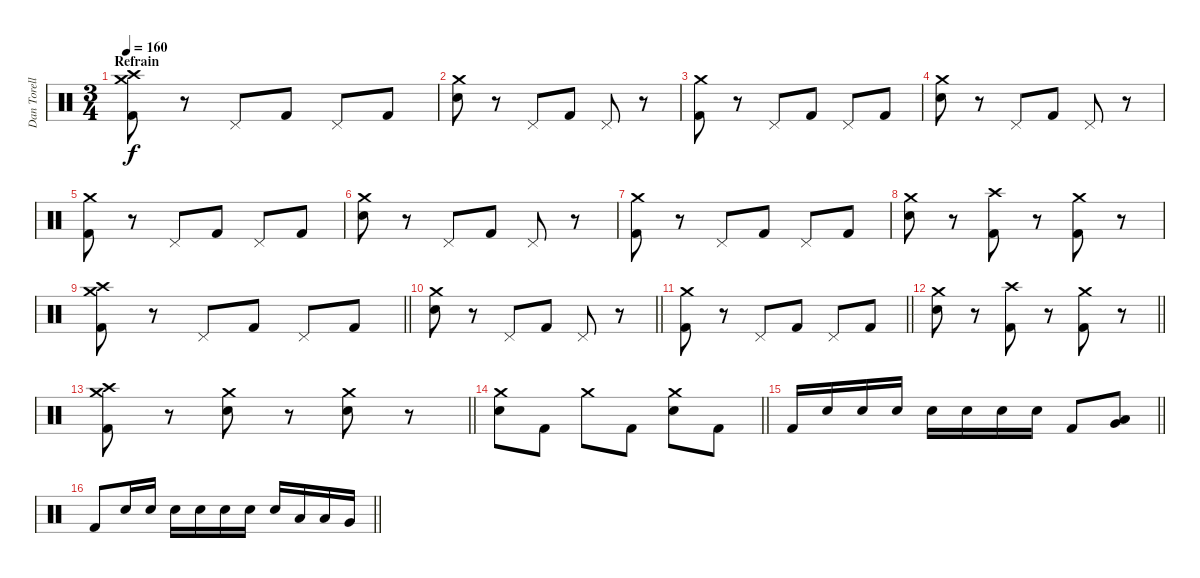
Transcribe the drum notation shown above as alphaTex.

\track ("Dan Torelli - Drums" "Dan Torell") {instrument percussion}
\staff {score}
\articulation defaults
\ts (3 4)
\section ("" "Refrain")
\tempo 160
\clef neutral
\ks c
("Crash medium (hit)" "Crash high (hit)" "Kick (hit) 2").8{dy f} r.8 "Pedal Hi-Hat (hit)".8 "Kick (hit) 2".8 "Pedal Hi-Hat (hit)".8 "Kick (hit) 2".8 |
("Crash medium (hit)" "Electric Snare (hit)").8 r.8 "Pedal Hi-Hat (hit)".8 "Kick (hit) 2".8 "Pedal Hi-Hat (hit)".8 r.8 |
("Crash medium (hit)" "Kick (hit) 2").8 r.8 "Pedal Hi-Hat (hit)".8 "Kick (hit) 2".8 "Pedal Hi-Hat (hit)".8 "Kick (hit) 2".8 |
("Crash medium (hit)" "Electric Snare (hit)").8 r.8 "Pedal Hi-Hat (hit)".8 "Kick (hit) 2".8 "Pedal Hi-Hat (hit)".8 r.8 |
("Crash medium (hit)" "Kick (hit) 2").8 r.8 "Pedal Hi-Hat (hit)".8 "Kick (hit) 2".8 "Pedal Hi-Hat (hit)".8 "Kick (hit) 2".8 |
("Crash medium (hit)" "Electric Snare (hit)").8 r.8 "Pedal Hi-Hat (hit)".8 "Kick (hit) 2".8 "Pedal Hi-Hat (hit)".8 r.8 |
("Crash medium (hit)" "Kick (hit) 2").8 r.8 "Pedal Hi-Hat (hit)".8 "Kick (hit) 2".8 "Pedal Hi-Hat (hit)".8 "Kick (hit) 2".8 |
("Crash medium (hit)" "Electric Snare (hit)").8 r.8 ("Crash high (hit)" "Kick (hit) 2").8 r.8 ("Crash medium (hit)" "Kick (hit) 2").8 r.8 |
\barLineRight lightlight
("Crash medium (hit)" "Crash high (hit)" "Kick (hit) 2").8 r.8 "Pedal Hi-Hat (hit)".8 "Kick (hit) 2".8 "Pedal Hi-Hat (hit)".8 "Kick (hit) 2".8 |
\barLineRight lightlight
("Crash medium (hit)" "Electric Snare (hit)").8 r.8 "Pedal Hi-Hat (hit)".8 "Kick (hit) 2".8 "Pedal Hi-Hat (hit)".8 r.8 |
\barLineRight lightlight
("Crash medium (hit)" "Kick (hit) 2").8 r.8 "Pedal Hi-Hat (hit)".8 "Kick (hit) 2".8 "Pedal Hi-Hat (hit)".8 "Kick (hit) 2".8 |
\barLineRight lightlight
("Crash medium (hit)" "Electric Snare (hit)").8 r.8 ("Crash high (hit)" "Kick (hit) 2").8 r.8 ("Crash medium (hit)" "Kick (hit) 2").8 r.8 |
\barLineRight lightlight
("Crash medium (hit)" "Crash high (hit)" "Kick (hit) 2").8 r.8 ("Crash medium (hit)" "Electric Snare (hit)").8 r.8 ("Crash medium (hit)" "Electric Snare (hit)").8 r.8 |
\barLineRight lightlight
("Crash medium (hit)" "Electric Snare (hit)").8 "Kick (hit) 2".8 "Crash medium (hit)".8 "Kick (hit) 2".8 ("Crash medium (hit)" "Electric Snare (hit)").8 "Kick (hit) 2".8 |
\barLineRight lightlight "Kick (hit) 2".16 "Electric Snare (hit)".16{volume 7} "Electric Snare (hit)".16{volume 13} "Electric Snare (hit)".16 "Electric Snare (hit)".16 "Electric Snare (hit)".16 "Electric Snare (hit)".16 "Electric Snare (hit)".16 "Kick (hit) 2".8
("Low Floor Tom (hit)" "Very Low Tom (hit)").8 |
\barLineRight lightlight "Kick (hit) 2".8 "Electric Snare (hit)".16{volume 7} "Electric Snare (hit)".16{volume 13} "Electric Snare (hit)".16 "Electric Snare (hit)".16 "Electric Snare (hit)".16 "Electric Snare (hit)".16 "Electric Snare (hit)".16 "Low Tom (hit)".16 "Low Tom (hit)".16 "Very Low Tom (hit)".16
